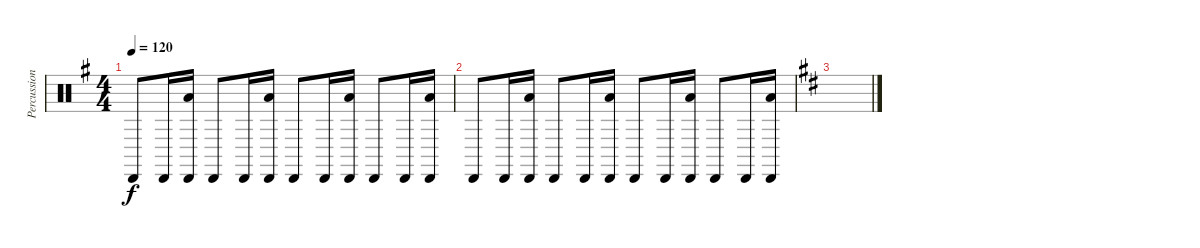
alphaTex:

\track ("Percussion" "Percussion") {instrument percussion}
\staff {score}
\articulation defaults
\ts (4 4)
\tempo 120
\clef neutral
\ks g "Cabasa (hit)".8{dy f} "Cabasa (hit)".16
("Cabasa (hit)" "Low Floor Tom (hit)").16 "Cabasa (hit)".8 "Cabasa (hit)".16 ("Cabasa (hit)" "Low Floor Tom (hit)").16 "Cabasa (hit)".8 "Cabasa (hit)".16 ("Cabasa (hit)" "Low Floor Tom (hit)").16 "Cabasa (hit)".8 "Cabasa (hit)".16 ("Cabasa (hit)" "Low Floor Tom (hit)").16 |
"Cabasa (hit)".8 "Cabasa (hit)".16 ("Cabasa (hit)" "Low Floor Tom (hit)").16 "Cabasa (hit)".8 "Cabasa (hit)".16 ("Cabasa (hit)" "Low Floor Tom (hit)").16 "Cabasa (hit)".8 "Cabasa (hit)".16 ("Cabasa (hit)" "Low Floor Tom (hit)").16 "Cabasa (hit)".8 "Cabasa (hit)".16 ("Cabasa (hit)" "Low Floor Tom (hit)").16 |
\ks d
